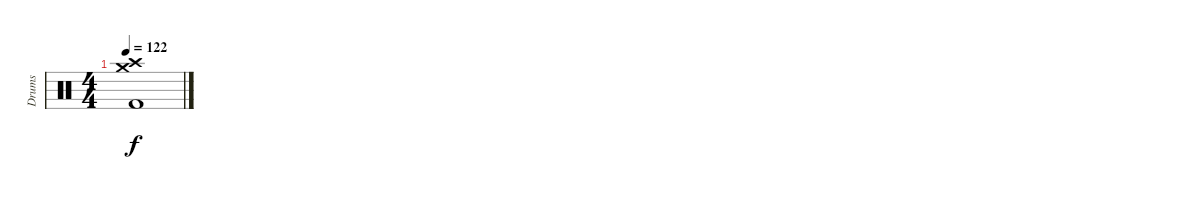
\track ("Drums" "Drums") {instrument percussion}
\staff {score}
\articulation defaults
\ts (4 4)
\tempo 122
\clef neutral
\ks c
("Crash high (hit)" "Crash medium (hit)" "Kick (hit) 2").1{dy f}
